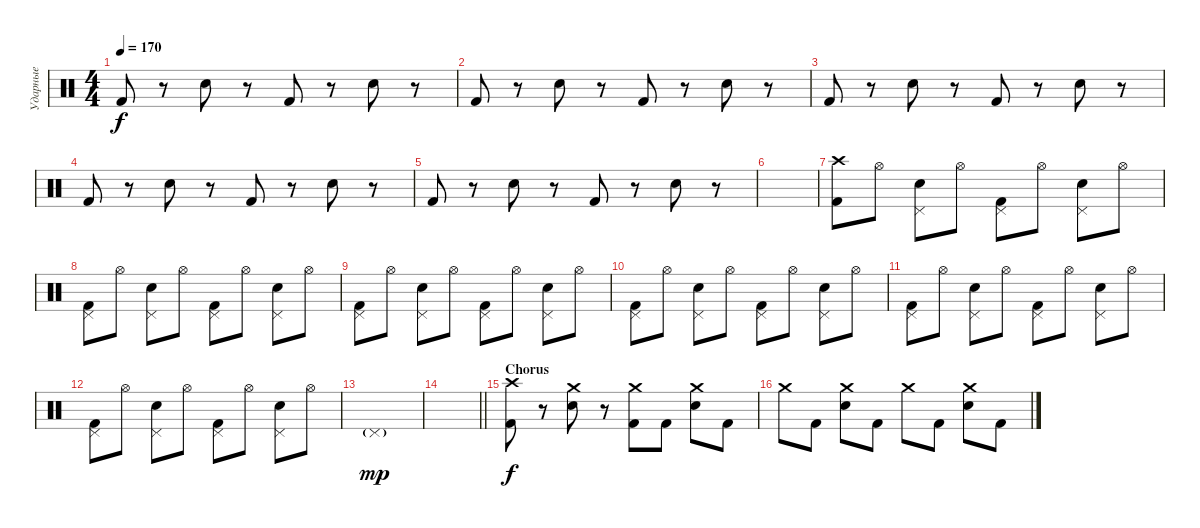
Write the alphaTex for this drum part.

\track ("Ударные" "Ударные") {instrument percussion}
\staff {score}
\articulation defaults
\ts (4 4)
\tempo 170
\clef neutral
\ks c "Kick (hit) 2".8{dy f}
r.8 "Electric Snare (hit)".8 r.8 "Kick (hit) 2".8 r.8 "Electric Snare (hit)".8 r.8 |
"Kick (hit) 2".8 r.8 "Electric Snare (hit)".8 r.8 "Kick (hit) 2".8 r.8 "Electric Snare (hit)".8 r.8 |
"Kick (hit) 2".8 r.8 "Electric Snare (hit)".8 r.8 "Kick (hit) 2".8 r.8 "Electric Snare (hit)".8 r.8 |
"Kick (hit) 2".8 r.8 "Electric Snare (hit)".8 r.8 "Kick (hit) 2".8 r.8 "Electric Snare (hit)".8 r.8 |
"Kick (hit) 2".8 r.8 "Electric Snare (hit)".8 r.8 "Kick (hit) 2".8 r.8 "Electric Snare (hit)".8 r.8 |
|
("Crash high (hit)" "Kick (hit) 2").8 "Hi-Hat (open)".8 ("Pedal Hi-Hat (hit)" "Electric Snare (hit)").8 "Hi-Hat (open)".8 ("Pedal Hi-Hat (hit)" "Kick (hit) 2").8 "Hi-Hat (open)".8 ("Pedal Hi-Hat (hit)" "Electric Snare (hit)").8 "Hi-Hat (open)".8 |
("Pedal Hi-Hat (hit)" "Kick (hit) 2").8 "Hi-Hat (open)".8 ("Pedal Hi-Hat (hit)" "Electric Snare (hit)").8 "Hi-Hat (open)".8 ("Pedal Hi-Hat (hit)" "Kick (hit) 2").8 "Hi-Hat (open)".8 ("Pedal Hi-Hat (hit)" "Electric Snare (hit)").8 "Hi-Hat (open)".8 |
("Pedal Hi-Hat (hit)" "Kick (hit) 2").8 "Hi-Hat (open)".8 ("Pedal Hi-Hat (hit)" "Electric Snare (hit)").8 "Hi-Hat (open)".8 ("Pedal Hi-Hat (hit)" "Kick (hit) 2").8 "Hi-Hat (open)".8 ("Pedal Hi-Hat (hit)" "Electric Snare (hit)").8 "Hi-Hat (open)".8 |
("Pedal Hi-Hat (hit)" "Kick (hit) 2").8 "Hi-Hat (open)".8 ("Pedal Hi-Hat (hit)" "Electric Snare (hit)").8 "Hi-Hat (open)".8 ("Pedal Hi-Hat (hit)" "Kick (hit) 2").8 "Hi-Hat (open)".8 ("Pedal Hi-Hat (hit)" "Electric Snare (hit)").8 "Hi-Hat (open)".8 |
("Pedal Hi-Hat (hit)" "Kick (hit) 2").8 "Hi-Hat (open)".8 ("Pedal Hi-Hat (hit)" "Electric Snare (hit)").8 "Hi-Hat (open)".8 ("Pedal Hi-Hat (hit)" "Kick (hit) 2").8 "Hi-Hat (open)".8 ("Pedal Hi-Hat (hit)" "Electric Snare (hit)").8 "Hi-Hat (open)".8 |
("Pedal Hi-Hat (hit)" "Kick (hit) 2").8 "Hi-Hat (open)".8 ("Pedal Hi-Hat (hit)" "Electric Snare (hit)").8 "Hi-Hat (open)".8 ("Pedal Hi-Hat (hit)" "Kick (hit) 2").8 "Hi-Hat (open)".8 ("Pedal Hi-Hat (hit)" "Electric Snare (hit)").8 "Hi-Hat (open)".8 |
"Pedal Hi-Hat (hit)"{g}.1{dy mp} |
\barLineRight lightlight
|
\section ("" "Chorus")
("Crash high (hit)" "Kick (hit) 2").8{dy f} r.8 ("Crash medium (hit)" "Electric Snare (hit)").8 r.8 ("Crash medium (hit)" "Kick (hit) 2").8 "Kick (hit) 2".8 ("Crash medium (hit)" "Electric Snare (hit)").8 "Kick (hit) 2".8 |
"Crash medium (hit)".8 "Kick (hit) 2".8 ("Crash medium (hit)" "Electric Snare (hit)").8 "Kick (hit) 2".8 "Crash medium (hit)".8 "Kick (hit) 2".8 ("Crash medium (hit)" "Electric Snare (hit)").8 "Kick (hit) 2".8
